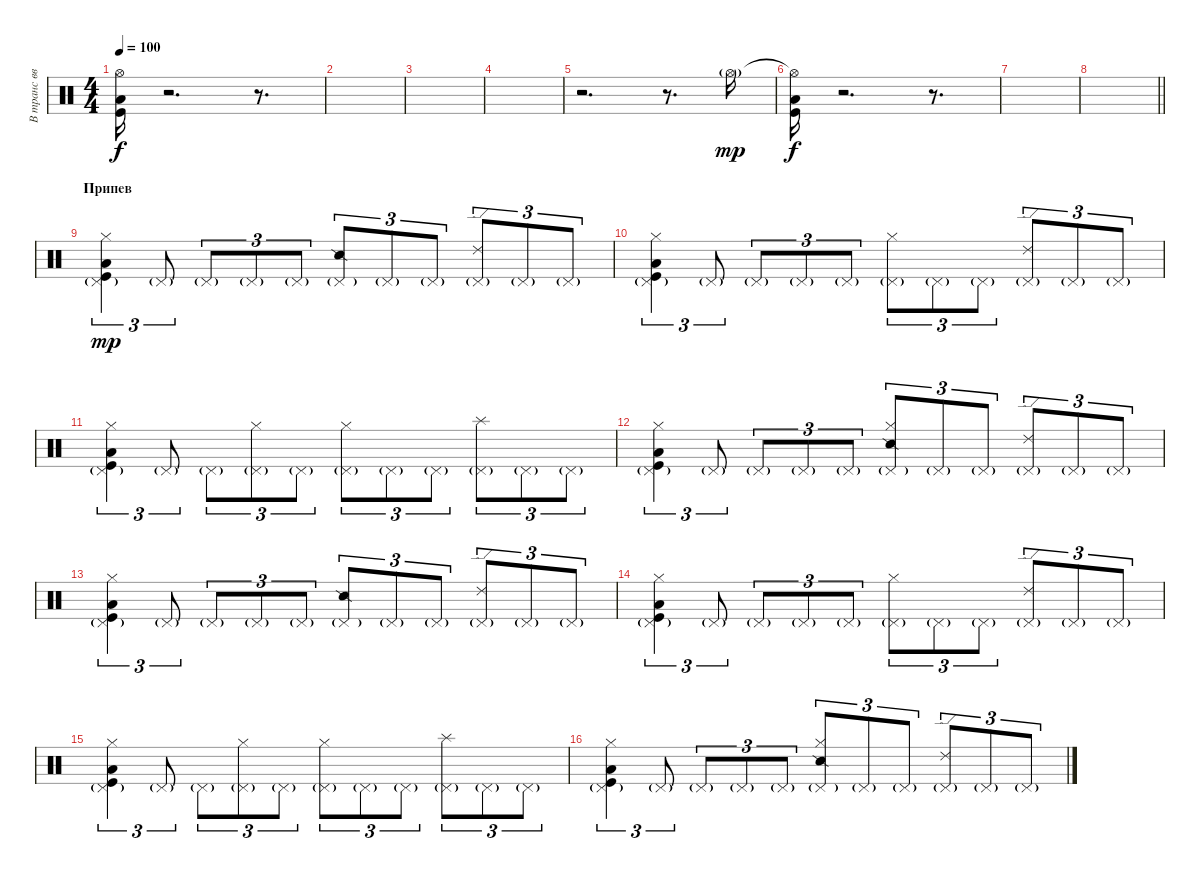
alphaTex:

\track ("В транс вводящие" "В транс вв") {instrument percussion}
\staff {score}
\articulation defaults
\ts (4 4)
\tempo 100
\clef neutral
\ks c
("Hi-Hat (open)"{t} "Low Tom (hit)" "Kick (hit)").16{dy f} r.2{d} r.8{d} |
|
|
|
r.2{d} r.8{d} "Hi-Hat (open)"{g}.16{dy mp} |
("Hi-Hat (open)"{t} "Low Tom (hit)" "Kick (hit)").16{dy f} r.2{d} r.8{d} |
|
\barLineRight lightlight
|
\section ("" "Припев")
("Pedal Hi-Hat (hit)"{g} "Hi-Hat (closed)" "Low Tom (hit)" "Kick (hit)").4{tu (3 2) dy mp} "Pedal Hi-Hat (hit)"{g}.8{tu (3 2)} "Pedal Hi-Hat (hit)"{g}.8{tu (3 2)} "Pedal Hi-Hat (hit)"{g}.8{tu (3 2)} "Pedal Hi-Hat (hit)"{g}.8{tu (3 2)} ("Pedal Hi-Hat (hit)"{g} "Snare (side stick) 2").8{tu (3 2)} "Pedal Hi-Hat (hit)"{g}.8{tu (3 2)} "Pedal Hi-Hat (hit)"{g}.8{tu (3 2)} ("Pedal Hi-Hat (hit)"{g} "Ride (edge) 2").8{tu (3 2)} "Pedal Hi-Hat (hit)"{g}.8{tu (3 2)} "Pedal Hi-Hat (hit)"{g}.8{tu (3 2)} |
("Pedal Hi-Hat (hit)"{g} "Hi-Hat (closed)" "Low Tom (hit)" "Kick (hit)").4{tu (3 2)} "Pedal Hi-Hat (hit)"{g}.8{tu (3 2)} "Pedal Hi-Hat (hit)"{g}.8{tu (3 2)} "Pedal Hi-Hat (hit)"{g}.8{tu (3 2)} "Pedal Hi-Hat (hit)"{g}.8{tu (3 2)} ("Pedal Hi-Hat (hit)"{g} "Hi-Hat (closed)").8{tu (3 2)} "Pedal Hi-Hat (hit)"{g}.8{tu (3 2)} "Pedal Hi-Hat (hit)"{g}.8{tu (3 2)} ("Pedal Hi-Hat (hit)"{g} "Ride (edge) 2").8{tu (3 2)} "Pedal Hi-Hat (hit)"{g}.8{tu (3 2)} "Pedal Hi-Hat (hit)"{g}.8{tu (3 2)} |
("Pedal Hi-Hat (hit)"{g} "Hi-Hat (closed)" "Low Tom (hit)" "Kick (hit)").4{tu (3 2)} "Pedal Hi-Hat (hit)"{g}.8{tu (3 2)} "Pedal Hi-Hat (hit)"{g}.8{tu (3 2)} ("Pedal Hi-Hat (hit)"{g} "Hi-Hat (closed)").8{tu (3 2)} "Pedal Hi-Hat (hit)"{g}.8{tu (3 2)} ("Pedal Hi-Hat (hit)"{g} "Hi-Hat (closed)").8{tu (3 2)} "Pedal Hi-Hat (hit)"{g}.8{tu (3 2)} "Pedal Hi-Hat (hit)"{g}.8{tu (3 2)} ("Pedal Hi-Hat (hit)"{g} "Splash (hit)").8{tu (3 2)} "Pedal Hi-Hat (hit)"{g}.8{tu (3 2)} "Pedal Hi-Hat (hit)"{g}.8{tu (3 2)} |
("Pedal Hi-Hat (hit)"{g} "Hi-Hat (closed)" "Low Tom (hit)" "Kick (hit)").4{tu (3 2)} "Pedal Hi-Hat (hit)"{g}.8{tu (3 2)} "Pedal Hi-Hat (hit)"{g}.8{tu (3 2)} "Pedal Hi-Hat (hit)"{g}.8{tu (3 2)} "Pedal Hi-Hat (hit)"{g}.8{tu (3 2)} ("Pedal Hi-Hat (hit)"{g} "Snare (side stick) 2" "Hi-Hat (closed)").8{tu (3 2)} "Pedal Hi-Hat (hit)"{g}.8{tu (3 2)} "Pedal Hi-Hat (hit)"{g}.8{tu (3 2)} ("Pedal Hi-Hat (hit)"{g} "Ride (edge) 2").8{tu (3 2)} "Pedal Hi-Hat (hit)"{g}.8{tu (3 2)} "Pedal Hi-Hat (hit)"{g}.8{tu (3 2)} |
("Pedal Hi-Hat (hit)"{g} "Hi-Hat (closed)" "Low Tom (hit)" "Kick (hit)").4{tu (3 2)} "Pedal Hi-Hat (hit)"{g}.8{tu (3 2)} "Pedal Hi-Hat (hit)"{g}.8{tu (3 2)} "Pedal Hi-Hat (hit)"{g}.8{tu (3 2)} "Pedal Hi-Hat (hit)"{g}.8{tu (3 2)} ("Pedal Hi-Hat (hit)"{g} "Snare (side stick) 2").8{tu (3 2)} "Pedal Hi-Hat (hit)"{g}.8{tu (3 2)} "Pedal Hi-Hat (hit)"{g}.8{tu (3 2)} ("Pedal Hi-Hat (hit)"{g} "Ride (edge) 2").8{tu (3 2)} "Pedal Hi-Hat (hit)"{g}.8{tu (3 2)} "Pedal Hi-Hat (hit)"{g}.8{tu (3 2)} |
("Pedal Hi-Hat (hit)"{g} "Hi-Hat (closed)" "Low Tom (hit)" "Kick (hit)").4{tu (3 2)} "Pedal Hi-Hat (hit)"{g}.8{tu (3 2)} "Pedal Hi-Hat (hit)"{g}.8{tu (3 2)} "Pedal Hi-Hat (hit)"{g}.8{tu (3 2)} "Pedal Hi-Hat (hit)"{g}.8{tu (3 2)} ("Pedal Hi-Hat (hit)"{g} "Hi-Hat (closed)").8{tu (3 2)} "Pedal Hi-Hat (hit)"{g}.8{tu (3 2)} "Pedal Hi-Hat (hit)"{g}.8{tu (3 2)} ("Pedal Hi-Hat (hit)"{g} "Ride (edge) 2").8{tu (3 2)} "Pedal Hi-Hat (hit)"{g}.8{tu (3 2)} "Pedal Hi-Hat (hit)"{g}.8{tu (3 2)} |
("Pedal Hi-Hat (hit)"{g} "Hi-Hat (closed)" "Low Tom (hit)" "Kick (hit)").4{tu (3 2)} "Pedal Hi-Hat (hit)"{g}.8{tu (3 2)} "Pedal Hi-Hat (hit)"{g}.8{tu (3 2)} ("Pedal Hi-Hat (hit)"{g} "Hi-Hat (closed)").8{tu (3 2)} "Pedal Hi-Hat (hit)"{g}.8{tu (3 2)} ("Pedal Hi-Hat (hit)"{g} "Hi-Hat (closed)").8{tu (3 2)} "Pedal Hi-Hat (hit)"{g}.8{tu (3 2)} "Pedal Hi-Hat (hit)"{g}.8{tu (3 2)} ("Pedal Hi-Hat (hit)"{g} "Splash (hit)").8{tu (3 2)} "Pedal Hi-Hat (hit)"{g}.8{tu (3 2)} "Pedal Hi-Hat (hit)"{g}.8{tu (3 2)} |
("Pedal Hi-Hat (hit)"{g} "Hi-Hat (closed)" "Low Tom (hit)" "Kick (hit)").4{tu (3 2)} "Pedal Hi-Hat (hit)"{g}.8{tu (3 2)} "Pedal Hi-Hat (hit)"{g}.8{tu (3 2)} "Pedal Hi-Hat (hit)"{g}.8{tu (3 2)} "Pedal Hi-Hat (hit)"{g}.8{tu (3 2)} ("Pedal Hi-Hat (hit)"{g} "Snare (side stick) 2" "Hi-Hat (closed)").8{tu (3 2)} "Pedal Hi-Hat (hit)"{g}.8{tu (3 2)} "Pedal Hi-Hat (hit)"{g}.8{tu (3 2)} ("Pedal Hi-Hat (hit)"{g} "Ride (edge) 2").8{tu (3 2)} "Pedal Hi-Hat (hit)"{g}.8{tu (3 2)} "Pedal Hi-Hat (hit)"{g}.8{tu (3 2)}
